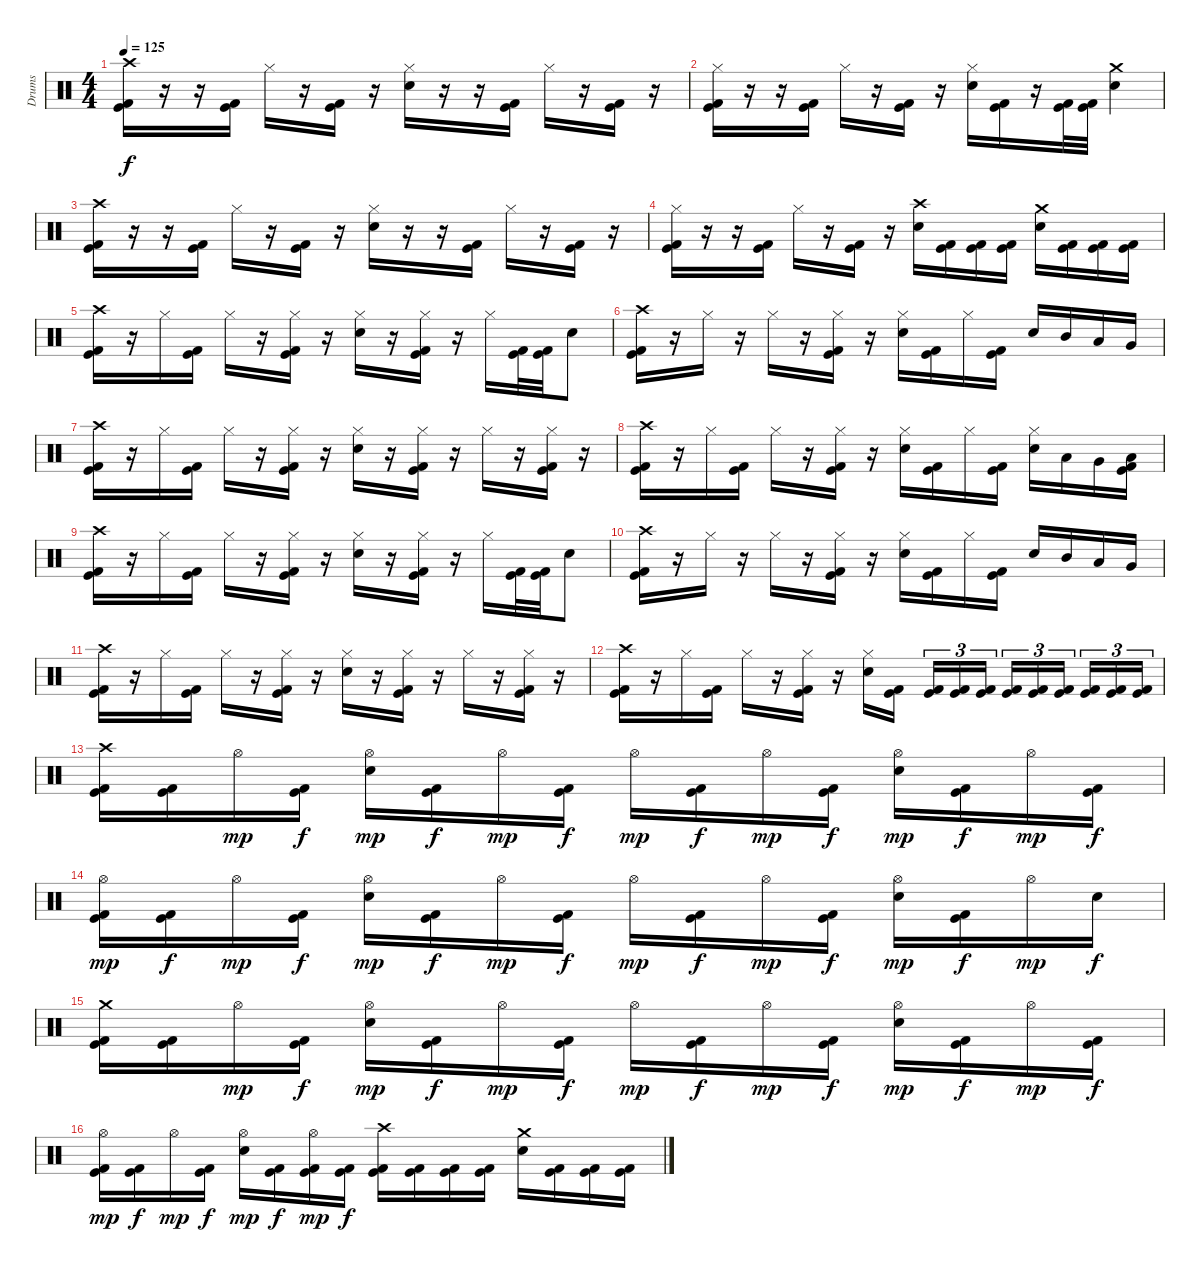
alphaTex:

\track ("Drums" "Drums") {instrument percussion}
\staff {score}
\articulation defaults
\ts (4 4)
\tempo 125
\clef neutral
\ks c
("Crash high (hit)" "Kick (hit)" "Kick (hit) 2").16{dy f} r.16 r.16 ("Kick (hit)" "Kick (hit) 2").16 "Hi-Hat (closed)".16 r.16 ("Kick (hit)" "Kick (hit) 2").16 r.16 ("Hi-Hat (closed)" "Electric Snare (hit)").16 r.16 r.16 ("Kick (hit)" "Kick (hit) 2").16 "Hi-Hat (closed)".16 r.16 ("Kick (hit)" "Kick (hit) 2").16 r.16 |
("Hi-Hat (closed)" "Kick (hit)" "Kick (hit) 2").16 r.16 r.16 ("Kick (hit)" "Kick (hit) 2").16 "Hi-Hat (closed)".16 r.16 ("Kick (hit)" "Kick (hit) 2").16 r.16 ("Hi-Hat (closed)" "Electric Snare (hit)").16 ("Kick (hit)" "Kick (hit) 2").16 r.16 ("Kick (hit)" "Kick (hit) 2").32 ("Kick (hit)" "Kick (hit) 2").32 ("Crash medium (hit)" "Electric Snare (hit)").4 |
("Crash high (hit)" "Kick (hit)" "Kick (hit) 2").16 r.16 r.16 ("Kick (hit)" "Kick (hit) 2").16 "Hi-Hat (closed)".16 r.16 ("Kick (hit)" "Kick (hit) 2").16 r.16 ("Hi-Hat (closed)" "Electric Snare (hit)").16 r.16 r.16 ("Kick (hit)" "Kick (hit) 2").16 "Hi-Hat (closed)".16 r.16 ("Kick (hit)" "Kick (hit) 2").16 r.16 |
("Hi-Hat (closed)" "Kick (hit)" "Kick (hit) 2").16 r.16 r.16 ("Kick (hit)" "Kick (hit) 2").16 "Hi-Hat (closed)".16 r.16 ("Kick (hit)" "Kick (hit) 2").16 r.16 ("Crash high (hit)" "Electric Snare (hit)").16 ("Kick (hit)" "Kick (hit) 2").16 ("Kick (hit)" "Kick (hit) 2").16 ("Kick (hit)" "Kick (hit) 2").16 ("Crash medium (hit)" "Electric Snare (hit)").16 ("Kick (hit)" "Kick (hit) 2").16 ("Kick (hit)" "Kick (hit) 2").16 ("Kick (hit)" "Kick (hit) 2").16 |
("Crash high (hit)" "Kick (hit)" "Kick (hit) 2").16 r.16 "Hi-Hat (closed)".16 ("Kick (hit)" "Kick (hit) 2").16 "Hi-Hat (closed)".16 r.16 ("Hi-Hat (closed)" "Kick (hit)" "Kick (hit) 2").16 r.16 ("Hi-Hat (closed)" "Electric Snare (hit)").16 r.16 ("Hi-Hat (closed)" "Kick (hit)" "Kick (hit) 2").16 r.16 "Hi-Hat (closed)".16 ("Kick (hit)" "Kick (hit) 2").32 ("Kick (hit)" "Kick (hit) 2").32 "Electric Snare (hit)".8 |
("Crash high (hit)" "Kick (hit)" "Kick (hit) 2").16 r.16 "Hi-Hat (closed)".16 r.16 "Hi-Hat (closed)".16 r.16 ("Hi-Hat (closed)" "Kick (hit)" "Kick (hit) 2").16 r.16 ("Hi-Hat (closed)" "Electric Snare (hit)").16 ("Kick (hit)" "Kick (hit) 2").16 "Hi-Hat (closed)".16 ("Kick (hit)" "Kick (hit) 2").16 "Electric Snare (hit)".16 "Mid Tom (hit)".16 "Low Tom (hit)".16 "Very Low Tom (hit)".16 |
("Crash high (hit)" "Kick (hit)" "Kick (hit) 2").16 r.16 "Hi-Hat (closed)".16 ("Kick (hit)" "Kick (hit) 2").16 "Hi-Hat (closed)".16 r.16 ("Hi-Hat (closed)" "Kick (hit)" "Kick (hit) 2").16 r.16 ("Hi-Hat (closed)" "Electric Snare (hit)").16 r.16 ("Hi-Hat (closed)" "Kick (hit)" "Kick (hit) 2").16 r.16 "Hi-Hat (closed)".16 r.16 ("Hi-Hat (closed)" "Kick (hit)" "Kick (hit) 2").16 r.16 |
("Crash high (hit)" "Kick (hit)" "Kick (hit) 2").16 r.16 "Hi-Hat (closed)".16 ("Kick (hit)" "Kick (hit) 2").16 "Hi-Hat (closed)".16 r.16 ("Hi-Hat (closed)" "Kick (hit)" "Kick (hit) 2").16 r.16 ("Hi-Hat (closed)" "Electric Snare (hit)").16 ("Kick (hit)" "Kick (hit) 2").16 "Hi-Hat (closed)".16 ("Kick (hit)" "Kick (hit) 2").16 ("Hi-Hat (closed)" "Electric Snare (hit)").16 "Low Tom (hit)".16 "Very Low Tom (hit)".16 ("Low Floor Tom (hit)" "Kick (hit)" "Kick (hit) 2").16 |
("Crash high (hit)" "Kick (hit)" "Kick (hit) 2").16 r.16 "Hi-Hat (closed)".16 ("Kick (hit)" "Kick (hit) 2").16 "Hi-Hat (closed)".16 r.16 ("Hi-Hat (closed)" "Kick (hit)" "Kick (hit) 2").16 r.16 ("Hi-Hat (closed)" "Electric Snare (hit)").16 r.16 ("Hi-Hat (closed)" "Kick (hit)" "Kick (hit) 2").16 r.16 "Hi-Hat (closed)".16 ("Kick (hit)" "Kick (hit) 2").32 ("Kick (hit)" "Kick (hit) 2").32 "Electric Snare (hit)".8 |
("Crash high (hit)" "Kick (hit)" "Kick (hit) 2").16 r.16 "Hi-Hat (closed)".16 r.16 "Hi-Hat (closed)".16 r.16 ("Hi-Hat (closed)" "Kick (hit)" "Kick (hit) 2").16 r.16 ("Hi-Hat (closed)" "Electric Snare (hit)").16 ("Kick (hit)" "Kick (hit) 2").16 "Hi-Hat (closed)".16 ("Kick (hit)" "Kick (hit) 2").16 "Electric Snare (hit)".16 "Mid Tom (hit)".16 "Low Tom (hit)".16 "Very Low Tom (hit)".16 |
("Crash high (hit)" "Kick (hit)" "Kick (hit) 2").16 r.16 "Hi-Hat (closed)".16 ("Kick (hit)" "Kick (hit) 2").16 "Hi-Hat (closed)".16 r.16 ("Hi-Hat (closed)" "Kick (hit)" "Kick (hit) 2").16 r.16 ("Hi-Hat (closed)" "Electric Snare (hit)").16 r.16 ("Hi-Hat (closed)" "Kick (hit)" "Kick (hit) 2").16 r.16 "Hi-Hat (closed)".16 r.16 ("Hi-Hat (closed)" "Kick (hit)" "Kick (hit) 2").16 r.16 |
("Crash high (hit)" "Kick (hit)" "Kick (hit) 2").16 r.16 "Hi-Hat (closed)".16 ("Kick (hit)" "Kick (hit) 2").16 "Hi-Hat (closed)".16 r.16 ("Hi-Hat (closed)" "Kick (hit)" "Kick (hit) 2").16 r.16 ("Hi-Hat (closed)" "Electric Snare (hit)").16 ("Kick (hit)" "Kick (hit) 2").16 ("Kick (hit)" "Kick (hit) 2").16{tu (3 2)} ("Kick (hit)" "Kick (hit) 2").16{tu (3 2)} ("Kick (hit)" "Kick (hit) 2").16{tu (3 2)} ("Kick (hit)" "Kick (hit) 2").16{tu (3 2)} ("Kick (hit)" "Kick (hit) 2").16{tu (3 2)} ("Kick (hit)" "Kick (hit) 2").16{tu (3 2)} ("Kick (hit)" "Kick (hit) 2").16{tu (3 2)} ("Kick (hit)" "Kick (hit) 2").16{tu (3 2)} ("Kick (hit)" "Kick (hit) 2").16{tu (3 2)} |
("Crash high (hit)" "Kick (hit)" "Kick (hit) 2").16 ("Kick (hit)" "Kick (hit) 2").16 "Hi-Hat (open)".16{dy mp} ("Kick (hit)" "Kick (hit) 2").16{dy f} ("Hi-Hat (open)" "Electric Snare (hit)").16{dy mp} ("Kick (hit)" "Kick (hit) 2").16{dy f} "Hi-Hat (open)".16{dy mp} ("Kick (hit)" "Kick (hit) 2").16{dy f} "Hi-Hat (open)".16{dy mp} ("Kick (hit)" "Kick (hit) 2").16{dy f} "Hi-Hat (open)".16{dy mp} ("Kick (hit)" "Kick (hit) 2").16{dy f} ("Hi-Hat (open)" "Electric Snare (hit)").16{dy mp} ("Kick (hit)" "Kick (hit) 2").16{dy f} "Hi-Hat (open)".16{dy mp} ("Kick (hit)" "Kick (hit) 2").16{dy f} |
("Hi-Hat (open)" "Kick (hit)" "Kick (hit) 2").16{dy mp} ("Kick (hit)" "Kick (hit) 2").16{dy f} "Hi-Hat (open)".16{dy mp} ("Kick (hit)" "Kick (hit) 2").16{dy f} ("Hi-Hat (open)" "Electric Snare (hit)").16{dy mp} ("Kick (hit)" "Kick (hit) 2").16{dy f} "Hi-Hat (open)".16{dy mp} ("Kick (hit)" "Kick (hit) 2").16{dy f} "Hi-Hat (open)".16{dy mp} ("Kick (hit)" "Kick (hit) 2").16{dy f} "Hi-Hat (open)".16{dy mp} ("Kick (hit)" "Kick (hit) 2").16{dy f} ("Hi-Hat (open)" "Electric Snare (hit)").16{dy mp} ("Kick (hit)" "Kick (hit) 2").16{dy f} "Hi-Hat (open)".16{dy mp} "Electric Snare (hit)".16{dy f} |
("Crash medium (hit)" "Kick (hit)" "Kick (hit) 2").16 ("Kick (hit)" "Kick (hit) 2").16 "Hi-Hat (open)".16{dy mp} ("Kick (hit)" "Kick (hit) 2").16{dy f} ("Hi-Hat (open)" "Electric Snare (hit)").16{dy mp} ("Kick (hit)" "Kick (hit) 2").16{dy f} "Hi-Hat (open)".16{dy mp} ("Kick (hit)" "Kick (hit) 2").16{dy f} "Hi-Hat (open)".16{dy mp} ("Kick (hit)" "Kick (hit) 2").16{dy f} "Hi-Hat (open)".16{dy mp} ("Kick (hit)" "Kick (hit) 2").16{dy f} ("Hi-Hat (open)" "Electric Snare (hit)").16{dy mp} ("Kick (hit)" "Kick (hit) 2").16{dy f} "Hi-Hat (open)".16{dy mp} ("Kick (hit)" "Kick (hit) 2").16{dy f} |
("Hi-Hat (open)" "Kick (hit)" "Kick (hit) 2").16{dy mp} ("Kick (hit)" "Kick (hit) 2").16{dy f} "Hi-Hat (open)".16{dy mp} ("Kick (hit)" "Kick (hit) 2").16{dy f} ("Hi-Hat (open)" "Electric Snare (hit)").16{dy mp} ("Kick (hit)" "Kick (hit) 2").16{dy f} ("Hi-Hat (open)" "Kick (hit)" "Kick (hit) 2").16{dy mp} ("Kick (hit)" "Kick (hit) 2").16{dy f} ("Crash high (hit)" "Kick (hit)" "Kick (hit) 2").16 ("Kick (hit)" "Kick (hit) 2").16 ("Kick (hit)" "Kick (hit) 2").16 ("Kick (hit)" "Kick (hit) 2").16 ("Crash medium (hit)" "Electric Snare (hit)").16 ("Kick (hit)" "Kick (hit) 2").16 ("Kick (hit)" "Kick (hit) 2").16 ("Kick (hit)" "Kick (hit) 2").16
